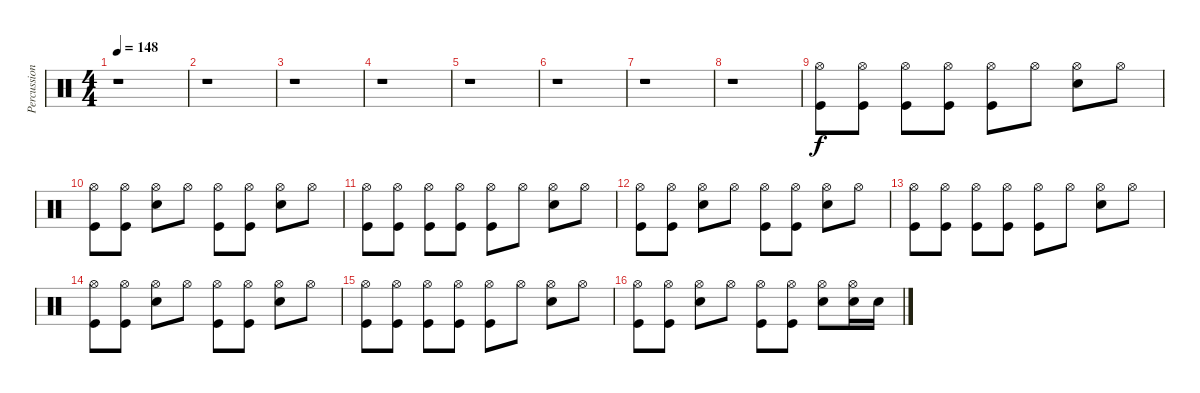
\track ("Percussion" "Percussion") {instrument percussion}
\staff {score}
\articulation defaults
\ts (4 4)
\tempo 148
\clef neutral
\ks c
r.1{dy f} |
r.1 |
r.1 |
r.1 |
r.1 |
r.1 |
r.1 |
r.1 |
("Hi-Hat (open)" "Kick (hit)").8 ("Hi-Hat (open)" "Kick (hit)").8 ("Hi-Hat (open)" "Kick (hit)").8 ("Hi-Hat (open)" "Kick (hit)").8 ("Hi-Hat (open)" "Kick (hit)").8 "Hi-Hat (open)".8 ("Hi-Hat (open)" "Snare (hit) 2").8 "Hi-Hat (open)".8 |
("Hi-Hat (open)" "Kick (hit)").8 ("Hi-Hat (open)" "Kick (hit)").8 ("Hi-Hat (open)" "Snare (hit) 2").8 "Hi-Hat (open)".8 ("Hi-Hat (open)" "Kick (hit)").8 ("Hi-Hat (open)" "Kick (hit)").8 ("Hi-Hat (open)" "Snare (hit) 2").8 "Hi-Hat (open)".8 |
("Hi-Hat (open)" "Kick (hit)").8 ("Hi-Hat (open)" "Kick (hit)").8 ("Hi-Hat (open)" "Kick (hit)").8 ("Hi-Hat (open)" "Kick (hit)").8 ("Hi-Hat (open)" "Kick (hit)").8 "Hi-Hat (open)".8 ("Hi-Hat (open)" "Snare (hit) 2").8 "Hi-Hat (open)".8 |
("Hi-Hat (open)" "Kick (hit)").8 ("Hi-Hat (open)" "Kick (hit)").8 ("Hi-Hat (open)" "Snare (hit) 2").8 "Hi-Hat (open)".8 ("Hi-Hat (open)" "Kick (hit)").8 ("Hi-Hat (open)" "Kick (hit)").8 ("Hi-Hat (open)" "Snare (hit) 2").8 "Hi-Hat (open)".8 |
("Hi-Hat (open)" "Kick (hit)").8 ("Hi-Hat (open)" "Kick (hit)").8 ("Hi-Hat (open)" "Kick (hit)").8 ("Hi-Hat (open)" "Kick (hit)").8 ("Hi-Hat (open)" "Kick (hit)").8 "Hi-Hat (open)".8 ("Hi-Hat (open)" "Snare (hit) 2").8 "Hi-Hat (open)".8 |
("Hi-Hat (open)" "Kick (hit)").8 ("Hi-Hat (open)" "Kick (hit)").8 ("Hi-Hat (open)" "Snare (hit) 2").8 "Hi-Hat (open)".8 ("Hi-Hat (open)" "Kick (hit)").8 ("Hi-Hat (open)" "Kick (hit)").8 ("Hi-Hat (open)" "Snare (hit) 2").8 "Hi-Hat (open)".8 |
("Hi-Hat (open)" "Kick (hit)").8 ("Hi-Hat (open)" "Kick (hit)").8 ("Hi-Hat (open)" "Kick (hit)").8 ("Hi-Hat (open)" "Kick (hit)").8 ("Hi-Hat (open)" "Kick (hit)").8 "Hi-Hat (open)".8 ("Hi-Hat (open)" "Snare (hit) 2").8 "Hi-Hat (open)".8 |
("Hi-Hat (open)" "Kick (hit)").8 ("Hi-Hat (open)" "Kick (hit)").8 ("Hi-Hat (open)" "Snare (hit) 2").8 "Hi-Hat (open)".8 ("Hi-Hat (open)" "Kick (hit)").8 ("Hi-Hat (open)" "Kick (hit)").8 ("Hi-Hat (open)" "Snare (hit) 2").8 ("Hi-Hat (open)" "Snare (hit) 2").16 "Snare (hit) 2".16
